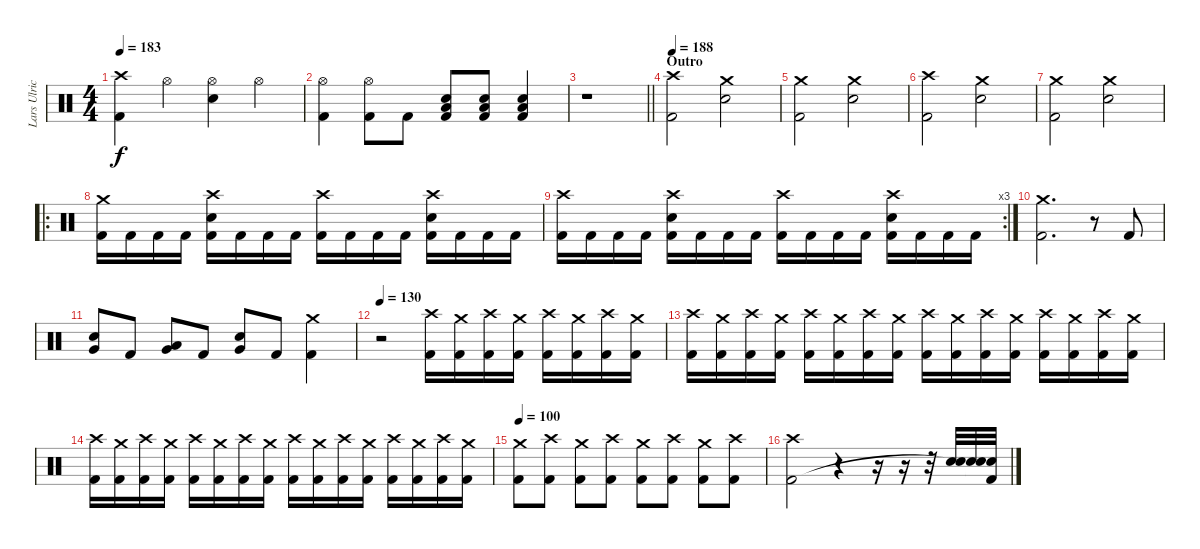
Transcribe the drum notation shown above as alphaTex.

\track ("Lars Ulrich" "Lars Ulric") {instrument percussion}
\staff {score}
\articulation defaults
\ts (4 4)
\tempo 183
\clef neutral
\ks c
("Crash high (hit)" "Kick (hit) 2").4{dy f} "Hi-Hat (open)".4 ("Hi-Hat (open)" "Snare (hit) 2").4 "Hi-Hat (open)".4 |
("Hi-Hat (open)" "Kick (hit) 2").4 ("Hi-Hat (open)" "Kick (hit) 2").8 "Kick (hit) 2".8 ("Snare (hit) 2" "Low Floor Tom (hit)" "Kick (hit) 2").8 ("Snare (hit) 2" "Low Floor Tom (hit)" "Kick (hit) 2").8 ("Snare (hit) 2" "Low Floor Tom (hit)" "Kick (hit) 2").4 |
\barLineRight lightlight
r.1 |
\section ("" "Outro")
\tempo 188
("Crash high (hit)" "Kick (hit) 2").2 ("Crash medium (hit)" "Snare (hit) 2").2 |
("Crash medium (hit)" "Kick (hit) 2").2 ("Crash medium (hit)" "Snare (hit) 2").2 |
("Crash high (hit)" "Kick (hit) 2").2 ("Crash medium (hit)" "Snare (hit) 2").2 |
("Crash medium (hit)" "Kick (hit) 2").2 ("Crash medium (hit)" "Snare (hit) 2").2 |
\ro
("Crash medium (hit)" "Kick (hit) 2").16 "Kick (hit) 2".16 "Kick (hit) 2".16 "Kick (hit) 2".16 ("Crash high (hit)" "Snare (hit) 2" "Kick (hit) 2").16 "Kick (hit) 2".16 "Kick (hit) 2".16 "Kick (hit) 2".16 ("Crash high (hit)" "Kick (hit) 2").16 "Kick (hit) 2".16 "Kick (hit) 2".16 "Kick (hit) 2".16 ("Crash high (hit)" "Snare (hit) 2" "Kick (hit) 2").16 "Kick (hit) 2".16 "Kick (hit) 2".16 "Kick (hit) 2".16 |
\rc 3
("Crash high (hit)" "Kick (hit) 2").16 "Kick (hit) 2".16 "Kick (hit) 2".16 "Kick (hit) 2".16 ("Crash high (hit)" "Snare (hit) 2" "Kick (hit) 2").16 "Kick (hit) 2".16 "Kick (hit) 2".16 "Kick (hit) 2".16 ("Crash high (hit)" "Kick (hit) 2").16 "Kick (hit) 2".16 "Kick (hit) 2".16 "Kick (hit) 2".16 ("Crash high (hit)" "Snare (hit) 2" "Kick (hit) 2").16 "Kick (hit) 2".16 "Kick (hit) 2".16 "Kick (hit) 2".16 |
("Crash medium (hit)" "Kick (hit) 2").2{d} r.8 "Kick (hit) 2".8 |
("Snare (hit) 2" "Very Low Tom (hit)").8 "Kick (hit) 2".8 ("Low Tom (hit)" "Very Low Tom (hit)").8 "Kick (hit) 2".8 ("Snare (hit) 2" "Very Low Tom (hit)").8 "Kick (hit) 2".8 ("Crash medium (hit)" "Kick (hit) 2").4 |
\tempo 130
r.2 ("Crash high (hit)" "Kick (hit) 2").16{volume 4} ("Crash medium (hit)" "Kick (hit) 2").16{volume 11} ("Crash high (hit)" "Kick (hit) 2").16 ("Crash medium (hit)" "Kick (hit) 2").16 ("Crash high (hit)" "Kick (hit) 2").16 ("Crash medium (hit)" "Kick (hit) 2").16 ("Crash high (hit)" "Kick (hit) 2").16 ("Crash medium (hit)" "Kick (hit) 2").16 |
("Crash high (hit)" "Kick (hit) 2").16 ("Crash medium (hit)" "Kick (hit) 2").16 ("Crash high (hit)" "Kick (hit) 2").16 ("Crash medium (hit)" "Kick (hit) 2").16 ("Crash high (hit)" "Kick (hit) 2").16 ("Crash medium (hit)" "Kick (hit) 2").16 ("Crash high (hit)" "Kick (hit) 2").16 ("Crash medium (hit)" "Kick (hit) 2").16 ("Crash high (hit)" "Kick (hit) 2").16 ("Crash medium (hit)" "Kick (hit) 2").16 ("Crash high (hit)" "Kick (hit) 2").16 ("Crash medium (hit)" "Kick (hit) 2").16 ("Crash high (hit)" "Kick (hit) 2").16 ("Crash medium (hit)" "Kick (hit) 2").16 ("Crash high (hit)" "Kick (hit) 2").16 ("Crash medium (hit)" "Kick (hit) 2").16 |
("Crash high (hit)" "Kick (hit) 2").16 ("Crash medium (hit)" "Kick (hit) 2").16 ("Crash high (hit)" "Kick (hit) 2").16 ("Crash medium (hit)" "Kick (hit) 2").16 ("Crash high (hit)" "Kick (hit) 2").16 ("Crash medium (hit)" "Kick (hit) 2").16 ("Crash high (hit)" "Kick (hit) 2").16 ("Crash medium (hit)" "Kick (hit) 2").16 ("Crash high (hit)" "Kick (hit) 2").16 ("Crash medium (hit)" "Kick (hit) 2").16 ("Crash high (hit)" "Kick (hit) 2").16 ("Crash medium (hit)" "Kick (hit) 2").16 ("Crash high (hit)" "Kick (hit) 2").16 ("Crash medium (hit)" "Kick (hit) 2").16 ("Crash high (hit)" "Kick (hit) 2").16 ("Crash medium (hit)" "Kick (hit) 2").16 |
\tempo 100
("Crash medium (hit)" "Kick (hit) 2").8 ("Crash high (hit)" "Kick (hit) 2").8 ("Crash medium (hit)" "Kick (hit) 2").8 ("Crash high (hit)" "Kick (hit) 2").8 ("Crash medium (hit)" "Kick (hit) 2").8 ("Crash high (hit)" "Kick (hit) 2").8 ("Crash medium (hit)" "Kick (hit) 2").8 ("Crash high (hit)" "Kick (hit) 2").8 |
("Crash high (hit)" "Kick (hit) 2").2 r.4 r.16 r.16 r.32 ("Snare (hit) 2" "Snare (hit)"{t}).32 ("Snare (hit) 2" "Snare (hit)"{t}).32 ("Kick (hit) 2" "Snare (hit)"{t}).32
